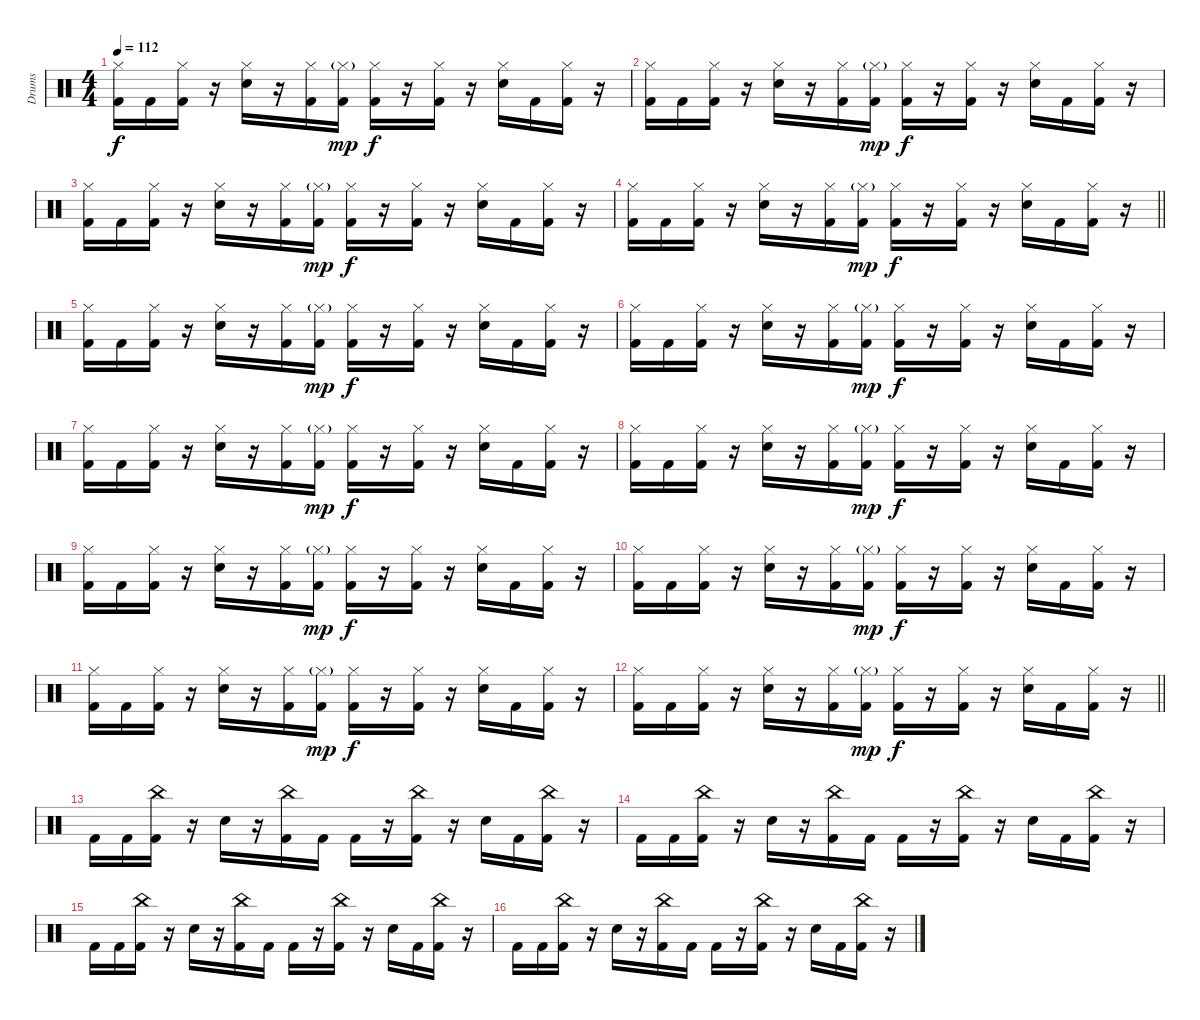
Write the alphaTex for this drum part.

\track ("Drums" "Drums") {instrument percussion}
\staff {score}
\articulation defaults
\ts (4 4)
\tempo 112
\clef neutral
\ks c
("Hi-Hat (closed)" "Kick (hit) 2").16{dy f} "Kick (hit) 2".16 ("Hi-Hat (closed)" "Kick (hit) 2").16 r.16 ("Hi-Hat (closed)" "Electric Snare (hit)").16 r.16 ("Hi-Hat (closed)" "Kick (hit) 2").16 ("Hi-Hat (closed)"{g} "Kick (hit) 2").16{dy mp} ("Hi-Hat (closed)" "Kick (hit) 2").16{dy f} r.16 ("Hi-Hat (closed)" "Kick (hit) 2").16 r.16 ("Hi-Hat (closed)" "Electric Snare (hit)").16 "Kick (hit) 2".16 ("Hi-Hat (closed)" "Kick (hit) 2").16 r.16 |
("Hi-Hat (closed)" "Kick (hit) 2").16 "Kick (hit) 2".16 ("Hi-Hat (closed)" "Kick (hit) 2").16 r.16 ("Hi-Hat (closed)" "Electric Snare (hit)").16 r.16 ("Hi-Hat (closed)" "Kick (hit) 2").16 ("Hi-Hat (closed)"{g} "Kick (hit) 2").16{dy mp} ("Hi-Hat (closed)" "Kick (hit) 2").16{dy f} r.16 ("Hi-Hat (closed)" "Kick (hit) 2").16 r.16 ("Hi-Hat (closed)" "Electric Snare (hit)").16 "Kick (hit) 2".16 ("Hi-Hat (closed)" "Kick (hit) 2").16 r.16 |
("Hi-Hat (closed)" "Kick (hit) 2").16 "Kick (hit) 2".16 ("Hi-Hat (closed)" "Kick (hit) 2").16 r.16 ("Hi-Hat (closed)" "Electric Snare (hit)").16 r.16 ("Hi-Hat (closed)" "Kick (hit) 2").16 ("Hi-Hat (closed)"{g} "Kick (hit) 2").16{dy mp} ("Hi-Hat (closed)" "Kick (hit) 2").16{dy f} r.16 ("Hi-Hat (closed)" "Kick (hit) 2").16 r.16 ("Hi-Hat (closed)" "Electric Snare (hit)").16 "Kick (hit) 2".16 ("Hi-Hat (closed)" "Kick (hit) 2").16 r.16 |
\barLineRight lightlight
("Hi-Hat (closed)" "Kick (hit) 2").16 "Kick (hit) 2".16 ("Hi-Hat (closed)" "Kick (hit) 2").16 r.16 ("Hi-Hat (closed)" "Electric Snare (hit)").16 r.16 ("Hi-Hat (closed)" "Kick (hit) 2").16 ("Hi-Hat (closed)"{g} "Kick (hit) 2").16{dy mp} ("Hi-Hat (closed)" "Kick (hit) 2").16{dy f} r.16 ("Hi-Hat (closed)" "Kick (hit) 2").16 r.16 ("Hi-Hat (closed)" "Electric Snare (hit)").16 "Kick (hit) 2".16 ("Hi-Hat (closed)" "Kick (hit) 2").16 r.16 |
("Hi-Hat (closed)" "Kick (hit) 2").16 "Kick (hit) 2".16 ("Hi-Hat (closed)" "Kick (hit) 2").16 r.16 ("Hi-Hat (closed)" "Electric Snare (hit)").16 r.16 ("Hi-Hat (closed)" "Kick (hit) 2").16 ("Hi-Hat (closed)"{g} "Kick (hit) 2").16{dy mp} ("Hi-Hat (closed)" "Kick (hit) 2").16{dy f} r.16 ("Hi-Hat (closed)" "Kick (hit) 2").16 r.16 ("Hi-Hat (closed)" "Electric Snare (hit)").16 "Kick (hit) 2".16 ("Hi-Hat (closed)" "Kick (hit) 2").16 r.16 |
("Hi-Hat (closed)" "Kick (hit) 2").16 "Kick (hit) 2".16 ("Hi-Hat (closed)" "Kick (hit) 2").16 r.16 ("Hi-Hat (closed)" "Electric Snare (hit)").16 r.16 ("Hi-Hat (closed)" "Kick (hit) 2").16 ("Hi-Hat (closed)"{g} "Kick (hit) 2").16{dy mp} ("Hi-Hat (closed)" "Kick (hit) 2").16{dy f} r.16 ("Hi-Hat (closed)" "Kick (hit) 2").16 r.16 ("Hi-Hat (closed)" "Electric Snare (hit)").16 "Kick (hit) 2".16 ("Hi-Hat (closed)" "Kick (hit) 2").16 r.16 |
("Hi-Hat (closed)" "Kick (hit) 2").16 "Kick (hit) 2".16 ("Hi-Hat (closed)" "Kick (hit) 2").16 r.16 ("Hi-Hat (closed)" "Electric Snare (hit)").16 r.16 ("Hi-Hat (closed)" "Kick (hit) 2").16 ("Hi-Hat (closed)"{g} "Kick (hit) 2").16{dy mp} ("Hi-Hat (closed)" "Kick (hit) 2").16{dy f} r.16 ("Hi-Hat (closed)" "Kick (hit) 2").16 r.16 ("Hi-Hat (closed)" "Electric Snare (hit)").16 "Kick (hit) 2".16 ("Hi-Hat (closed)" "Kick (hit) 2").16 r.16 |
("Hi-Hat (closed)" "Kick (hit) 2").16 "Kick (hit) 2".16 ("Hi-Hat (closed)" "Kick (hit) 2").16 r.16 ("Hi-Hat (closed)" "Electric Snare (hit)").16 r.16 ("Hi-Hat (closed)" "Kick (hit) 2").16 ("Hi-Hat (closed)"{g} "Kick (hit) 2").16{dy mp} ("Hi-Hat (closed)" "Kick (hit) 2").16{dy f} r.16 ("Hi-Hat (closed)" "Kick (hit) 2").16 r.16 ("Hi-Hat (closed)" "Electric Snare (hit)").16 "Kick (hit) 2".16 ("Hi-Hat (closed)" "Kick (hit) 2").16 r.16 |
("Hi-Hat (closed)" "Kick (hit) 2").16 "Kick (hit) 2".16 ("Hi-Hat (closed)" "Kick (hit) 2").16 r.16 ("Hi-Hat (closed)" "Electric Snare (hit)").16 r.16 ("Hi-Hat (closed)" "Kick (hit) 2").16 ("Hi-Hat (closed)"{g} "Kick (hit) 2").16{dy mp} ("Hi-Hat (closed)" "Kick (hit) 2").16{dy f} r.16 ("Hi-Hat (closed)" "Kick (hit) 2").16 r.16 ("Hi-Hat (closed)" "Electric Snare (hit)").16 "Kick (hit) 2".16 ("Hi-Hat (closed)" "Kick (hit) 2").16 r.16 |
("Hi-Hat (closed)" "Kick (hit) 2").16 "Kick (hit) 2".16 ("Hi-Hat (closed)" "Kick (hit) 2").16 r.16 ("Hi-Hat (closed)" "Electric Snare (hit)").16 r.16 ("Hi-Hat (closed)" "Kick (hit) 2").16 ("Hi-Hat (closed)"{g} "Kick (hit) 2").16{dy mp} ("Hi-Hat (closed)" "Kick (hit) 2").16{dy f} r.16 ("Hi-Hat (closed)" "Kick (hit) 2").16 r.16 ("Hi-Hat (closed)" "Electric Snare (hit)").16 "Kick (hit) 2".16 ("Hi-Hat (closed)" "Kick (hit) 2").16 r.16 |
("Hi-Hat (closed)" "Kick (hit) 2").16 "Kick (hit) 2".16 ("Hi-Hat (closed)" "Kick (hit) 2").16 r.16 ("Hi-Hat (closed)" "Electric Snare (hit)").16 r.16 ("Hi-Hat (closed)" "Kick (hit) 2").16 ("Hi-Hat (closed)"{g} "Kick (hit) 2").16{dy mp} ("Hi-Hat (closed)" "Kick (hit) 2").16{dy f} r.16 ("Hi-Hat (closed)" "Kick (hit) 2").16 r.16 ("Hi-Hat (closed)" "Electric Snare (hit)").16 "Kick (hit) 2".16 ("Hi-Hat (closed)" "Kick (hit) 2").16 r.16 |
\barLineRight lightlight
("Hi-Hat (closed)" "Kick (hit) 2").16 "Kick (hit) 2".16 ("Hi-Hat (closed)" "Kick (hit) 2").16 r.16 ("Hi-Hat (closed)" "Electric Snare (hit)").16 r.16 ("Hi-Hat (closed)" "Kick (hit) 2").16 ("Hi-Hat (closed)"{g} "Kick (hit) 2").16{dy mp} ("Hi-Hat (closed)" "Kick (hit) 2").16{dy f} r.16 ("Hi-Hat (closed)" "Kick (hit) 2").16 r.16 ("Hi-Hat (closed)" "Electric Snare (hit)").16 "Kick (hit) 2".16 ("Hi-Hat (closed)" "Kick (hit) 2").16 r.16 |
"Kick (hit) 2".16 "Kick (hit) 2".16 ("China (hit)" "Kick (hit) 2").16 r.16 "Electric Snare (hit)".16 r.16 ("China (hit)" "Kick (hit) 2").16 "Kick (hit) 2".16 "Kick (hit) 2".16 r.16 ("China (hit)" "Kick (hit) 2").16 r.16 "Electric Snare (hit)".16 "Kick (hit) 2".16 ("China (hit)" "Kick (hit) 2").16 r.16 |
"Kick (hit) 2".16 "Kick (hit) 2".16 ("China (hit)" "Kick (hit) 2").16 r.16 "Electric Snare (hit)".16 r.16 ("China (hit)" "Kick (hit) 2").16 "Kick (hit) 2".16 "Kick (hit) 2".16 r.16 ("China (hit)" "Kick (hit) 2").16 r.16 "Electric Snare (hit)".16 "Kick (hit) 2".16 ("China (hit)" "Kick (hit) 2").16 r.16 |
"Kick (hit) 2".16 "Kick (hit) 2".16 ("China (hit)" "Kick (hit) 2").16 r.16 "Electric Snare (hit)".16 r.16 ("China (hit)" "Kick (hit) 2").16 "Kick (hit) 2".16 "Kick (hit) 2".16 r.16 ("China (hit)" "Kick (hit) 2").16 r.16 "Electric Snare (hit)".16 "Kick (hit) 2".16 ("China (hit)" "Kick (hit) 2").16 r.16 |
"Kick (hit) 2".16 "Kick (hit) 2".16 ("China (hit)" "Kick (hit) 2").16 r.16 "Electric Snare (hit)".16 r.16 ("China (hit)" "Kick (hit) 2").16 "Kick (hit) 2".16 "Kick (hit) 2".16 r.16 ("China (hit)" "Kick (hit) 2").16 r.16 "Electric Snare (hit)".16 "Kick (hit) 2".16 ("China (hit)" "Kick (hit) 2").16 r.16
